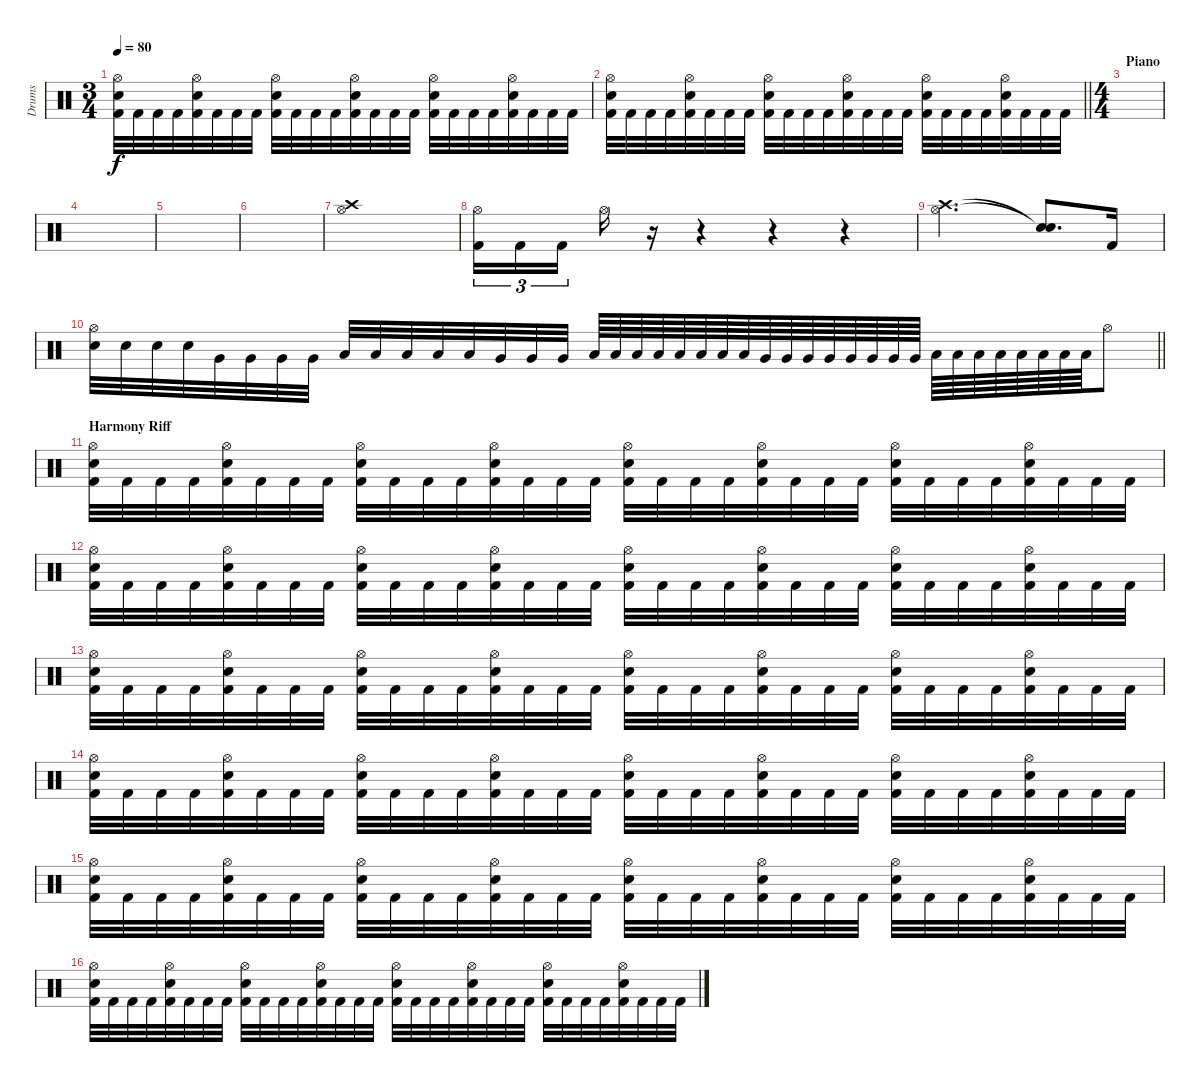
\track ("Drums" "Drums") {instrument percussion}
\staff {score}
\articulation defaults
\ts (3 4)
\tempo 80
\clef neutral
\ks c
("Hi-Hat (open)" "Electric Snare (hit)" "Kick (hit) 2").32{dy f} "Kick (hit) 2".32 "Kick (hit) 2".32 "Kick (hit) 2".32 ("Hi-Hat (open)" "Electric Snare (hit)" "Kick (hit) 2").32 "Kick (hit) 2".32 "Kick (hit) 2".32 "Kick (hit) 2".32 ("Hi-Hat (open)" "Electric Snare (hit)" "Kick (hit) 2").32 "Kick (hit) 2".32 "Kick (hit) 2".32 "Kick (hit) 2".32 ("Hi-Hat (open)" "Electric Snare (hit)" "Kick (hit) 2").32 "Kick (hit) 2".32 "Kick (hit) 2".32 "Kick (hit) 2".32 ("Hi-Hat (open)" "Electric Snare (hit)" "Kick (hit) 2").32 "Kick (hit) 2".32 "Kick (hit) 2".32 "Kick (hit) 2".32 ("Hi-Hat (open)" "Electric Snare (hit)" "Kick (hit) 2").32 "Kick (hit) 2".32 "Kick (hit) 2".32 "Kick (hit) 2".32 |
\barLineRight lightlight
("Hi-Hat (open)" "Electric Snare (hit)" "Kick (hit) 2").32 "Kick (hit) 2".32 "Kick (hit) 2".32 "Kick (hit) 2".32 ("Hi-Hat (open)" "Electric Snare (hit)" "Kick (hit) 2").32 "Kick (hit) 2".32 "Kick (hit) 2".32 "Kick (hit) 2".32 ("Hi-Hat (open)" "Electric Snare (hit)" "Kick (hit) 2").32 "Kick (hit) 2".32 "Kick (hit) 2".32 "Kick (hit) 2".32 ("Hi-Hat (open)" "Electric Snare (hit)" "Kick (hit) 2").32 "Kick (hit) 2".32 "Kick (hit) 2".32 "Kick (hit) 2".32 ("Hi-Hat (open)" "Electric Snare (hit)" "Kick (hit) 2").32 "Kick (hit) 2".32 "Kick (hit) 2".32 "Kick (hit) 2".32 ("Hi-Hat (open)" "Electric Snare (hit)" "Kick (hit) 2").32 "Kick (hit) 2".32 "Kick (hit) 2".32 "Kick (hit) 2".32 |
\ts (4 4)
\section ("" "Piano")
|
|
|
|
("Crash high (hit)" "Hi-Hat (open)").1 |
("Hi-Hat (open)" "Kick (hit) 2").16{tu (3 2)} "Kick (hit) 2".16{tu (3 2)} "Kick (hit) 2".16{tu (3 2) beam splitsecondary} "Hi-Hat (open)".16 r.16 r.4 r.4 r.4 |
("Crash high (hit)" "Hi-Hat (open)").2{d} ("Snare (hit)"{t} "Snare (hit)"{t}).8{d} "Kick (hit) 2".16 |
\barLineRight lightlight
("Hi-Hat (open)" "Electric Snare (hit)").32 "Electric Snare (hit)".32 "Electric Snare (hit)".32 "Electric Snare (hit)".32 "Very Low Tom (hit)".32 "Very Low Tom (hit)".32 "Very Low Tom (hit)".32 "Very Low Tom (hit)".32 "Low Floor Tom (hit)".32 "Low Floor Tom (hit)".32 "Low Floor Tom (hit)".32 "Low Floor Tom (hit)".32 "Low Floor Tom (hit)".32 "Very Low Tom (hit)".32 "Very Low Tom (hit)".32 "Very Low Tom (hit)".32 "Low Tom (hit)".64 "Low Tom (hit)".64 "Low Tom (hit)".64 "Low Tom (hit)".64 "Low Tom (hit)".64 "Low Tom (hit)".64 "Low Tom (hit)".64 "Low Tom (hit)".64 "Very Low Tom (hit)".64 "Very Low Tom (hit)".64 "Very Low Tom (hit)".64 "Very Low Tom (hit)".64 "Very Low Tom (hit)".64 "Very Low Tom (hit)".64 "Very Low Tom (hit)".64 "Very Low Tom (hit)".64 "Low Floor Tom (hit)".64 "Low Floor Tom (hit)".64 "Low Floor Tom (hit)".64 "Low Floor Tom (hit)".64 "Low Floor Tom (hit)".64 "Low Floor Tom (hit)".64 "Low Floor Tom (hit)".64 "Low Floor Tom (hit)".64 "Hi-Hat (open)".8 |
\section ("" "Harmony Riff")
("Hi-Hat (open)" "Electric Snare (hit)" "Kick (hit) 2").32 "Kick (hit) 2".32 "Kick (hit) 2".32 "Kick (hit) 2".32 ("Hi-Hat (open)" "Electric Snare (hit)" "Kick (hit) 2").32 "Kick (hit) 2".32 "Kick (hit) 2".32 "Kick (hit) 2".32 ("Hi-Hat (open)" "Electric Snare (hit)" "Kick (hit) 2").32 "Kick (hit) 2".32 "Kick (hit) 2".32 "Kick (hit) 2".32 ("Hi-Hat (open)" "Electric Snare (hit)" "Kick (hit) 2").32 "Kick (hit) 2".32 "Kick (hit) 2".32 "Kick (hit) 2".32 ("Hi-Hat (open)" "Electric Snare (hit)" "Kick (hit) 2").32 "Kick (hit) 2".32 "Kick (hit) 2".32 "Kick (hit) 2".32 ("Hi-Hat (open)" "Electric Snare (hit)" "Kick (hit) 2").32 "Kick (hit) 2".32 "Kick (hit) 2".32 "Kick (hit) 2".32 ("Hi-Hat (open)" "Electric Snare (hit)" "Kick (hit) 2").32 "Kick (hit) 2".32 "Kick (hit) 2".32 "Kick (hit) 2".32 ("Hi-Hat (open)" "Electric Snare (hit)" "Kick (hit) 2").32 "Kick (hit) 2".32 "Kick (hit) 2".32 "Kick (hit) 2".32 |
("Hi-Hat (open)" "Electric Snare (hit)" "Kick (hit) 2").32 "Kick (hit) 2".32 "Kick (hit) 2".32 "Kick (hit) 2".32 ("Hi-Hat (open)" "Electric Snare (hit)" "Kick (hit) 2").32 "Kick (hit) 2".32 "Kick (hit) 2".32 "Kick (hit) 2".32 ("Hi-Hat (open)" "Electric Snare (hit)" "Kick (hit) 2").32 "Kick (hit) 2".32 "Kick (hit) 2".32 "Kick (hit) 2".32 ("Hi-Hat (open)" "Electric Snare (hit)" "Kick (hit) 2").32 "Kick (hit) 2".32 "Kick (hit) 2".32 "Kick (hit) 2".32 ("Hi-Hat (open)" "Electric Snare (hit)" "Kick (hit) 2").32 "Kick (hit) 2".32 "Kick (hit) 2".32 "Kick (hit) 2".32 ("Hi-Hat (open)" "Electric Snare (hit)" "Kick (hit) 2").32 "Kick (hit) 2".32 "Kick (hit) 2".32 "Kick (hit) 2".32 ("Hi-Hat (open)" "Electric Snare (hit)" "Kick (hit) 2").32 "Kick (hit) 2".32 "Kick (hit) 2".32 "Kick (hit) 2".32 ("Hi-Hat (open)" "Electric Snare (hit)" "Kick (hit) 2").32 "Kick (hit) 2".32 "Kick (hit) 2".32 "Kick (hit) 2".32 |
("Hi-Hat (open)" "Electric Snare (hit)" "Kick (hit) 2").32 "Kick (hit) 2".32 "Kick (hit) 2".32 "Kick (hit) 2".32 ("Hi-Hat (open)" "Electric Snare (hit)" "Kick (hit) 2").32 "Kick (hit) 2".32 "Kick (hit) 2".32 "Kick (hit) 2".32 ("Hi-Hat (open)" "Electric Snare (hit)" "Kick (hit) 2").32 "Kick (hit) 2".32 "Kick (hit) 2".32 "Kick (hit) 2".32 ("Hi-Hat (open)" "Electric Snare (hit)" "Kick (hit) 2").32 "Kick (hit) 2".32 "Kick (hit) 2".32 "Kick (hit) 2".32 ("Hi-Hat (open)" "Electric Snare (hit)" "Kick (hit) 2").32 "Kick (hit) 2".32 "Kick (hit) 2".32 "Kick (hit) 2".32 ("Hi-Hat (open)" "Electric Snare (hit)" "Kick (hit) 2").32 "Kick (hit) 2".32 "Kick (hit) 2".32 "Kick (hit) 2".32 ("Hi-Hat (open)" "Electric Snare (hit)" "Kick (hit) 2").32 "Kick (hit) 2".32 "Kick (hit) 2".32 "Kick (hit) 2".32 ("Hi-Hat (open)" "Electric Snare (hit)" "Kick (hit) 2").32 "Kick (hit) 2".32 "Kick (hit) 2".32 "Kick (hit) 2".32 |
("Hi-Hat (open)" "Electric Snare (hit)" "Kick (hit) 2").32 "Kick (hit) 2".32 "Kick (hit) 2".32 "Kick (hit) 2".32 ("Hi-Hat (open)" "Electric Snare (hit)" "Kick (hit) 2").32 "Kick (hit) 2".32 "Kick (hit) 2".32 "Kick (hit) 2".32 ("Hi-Hat (open)" "Electric Snare (hit)" "Kick (hit) 2").32 "Kick (hit) 2".32 "Kick (hit) 2".32 "Kick (hit) 2".32 ("Hi-Hat (open)" "Electric Snare (hit)" "Kick (hit) 2").32 "Kick (hit) 2".32 "Kick (hit) 2".32 "Kick (hit) 2".32 ("Hi-Hat (open)" "Electric Snare (hit)" "Kick (hit) 2").32 "Kick (hit) 2".32 "Kick (hit) 2".32 "Kick (hit) 2".32 ("Hi-Hat (open)" "Electric Snare (hit)" "Kick (hit) 2").32 "Kick (hit) 2".32 "Kick (hit) 2".32 "Kick (hit) 2".32 ("Hi-Hat (open)" "Electric Snare (hit)" "Kick (hit) 2").32 "Kick (hit) 2".32 "Kick (hit) 2".32 "Kick (hit) 2".32 ("Hi-Hat (open)" "Electric Snare (hit)" "Kick (hit) 2").32 "Kick (hit) 2".32 "Kick (hit) 2".32 "Kick (hit) 2".32 |
("Hi-Hat (open)" "Electric Snare (hit)" "Kick (hit) 2").32 "Kick (hit) 2".32 "Kick (hit) 2".32 "Kick (hit) 2".32 ("Hi-Hat (open)" "Electric Snare (hit)" "Kick (hit) 2").32 "Kick (hit) 2".32 "Kick (hit) 2".32 "Kick (hit) 2".32 ("Hi-Hat (open)" "Electric Snare (hit)" "Kick (hit) 2").32 "Kick (hit) 2".32 "Kick (hit) 2".32 "Kick (hit) 2".32 ("Hi-Hat (open)" "Electric Snare (hit)" "Kick (hit) 2").32 "Kick (hit) 2".32 "Kick (hit) 2".32 "Kick (hit) 2".32 ("Hi-Hat (open)" "Electric Snare (hit)" "Kick (hit) 2").32 "Kick (hit) 2".32 "Kick (hit) 2".32 "Kick (hit) 2".32 ("Hi-Hat (open)" "Electric Snare (hit)" "Kick (hit) 2").32 "Kick (hit) 2".32 "Kick (hit) 2".32 "Kick (hit) 2".32 ("Hi-Hat (open)" "Electric Snare (hit)" "Kick (hit) 2").32 "Kick (hit) 2".32 "Kick (hit) 2".32 "Kick (hit) 2".32 ("Hi-Hat (open)" "Electric Snare (hit)" "Kick (hit) 2").32 "Kick (hit) 2".32 "Kick (hit) 2".32 "Kick (hit) 2".32 |
("Hi-Hat (open)" "Electric Snare (hit)" "Kick (hit) 2").32 "Kick (hit) 2".32 "Kick (hit) 2".32 "Kick (hit) 2".32 ("Hi-Hat (open)" "Electric Snare (hit)" "Kick (hit) 2").32 "Kick (hit) 2".32 "Kick (hit) 2".32 "Kick (hit) 2".32 ("Hi-Hat (open)" "Electric Snare (hit)" "Kick (hit) 2").32 "Kick (hit) 2".32 "Kick (hit) 2".32 "Kick (hit) 2".32 ("Hi-Hat (open)" "Electric Snare (hit)" "Kick (hit) 2").32 "Kick (hit) 2".32 "Kick (hit) 2".32 "Kick (hit) 2".32 ("Hi-Hat (open)" "Electric Snare (hit)" "Kick (hit) 2").32 "Kick (hit) 2".32 "Kick (hit) 2".32 "Kick (hit) 2".32 ("Hi-Hat (open)" "Electric Snare (hit)" "Kick (hit) 2").32 "Kick (hit) 2".32 "Kick (hit) 2".32 "Kick (hit) 2".32 ("Hi-Hat (open)" "Electric Snare (hit)" "Kick (hit) 2").32 "Kick (hit) 2".32 "Kick (hit) 2".32 "Kick (hit) 2".32 ("Hi-Hat (open)" "Electric Snare (hit)" "Kick (hit) 2").32 "Kick (hit) 2".32 "Kick (hit) 2".32 "Kick (hit) 2".32
